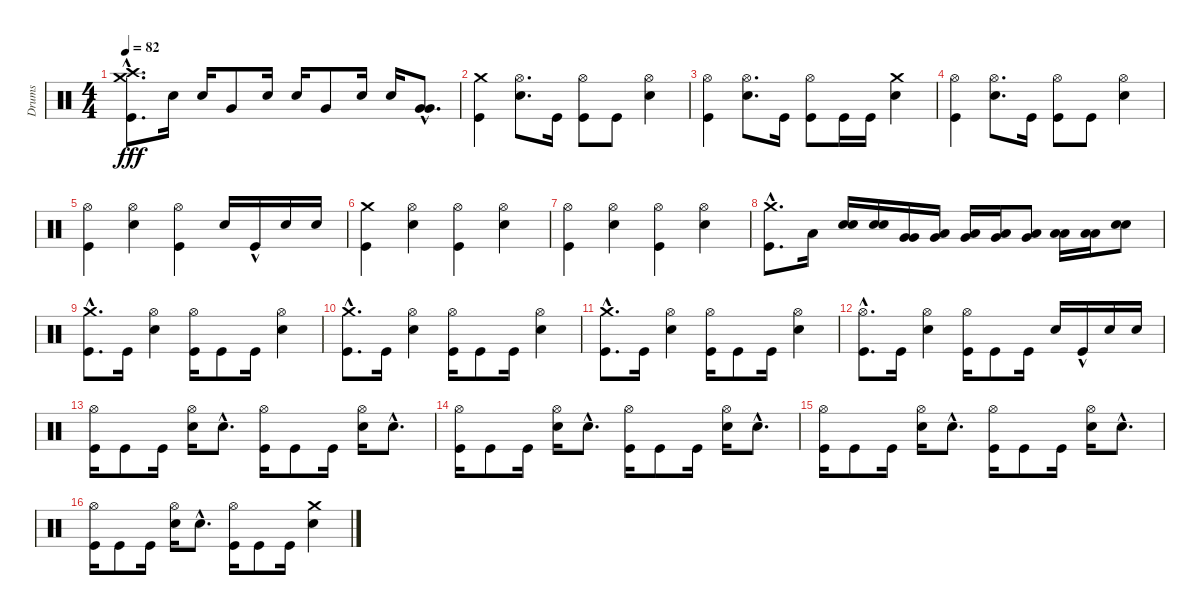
\track ("Drums" "Drums") {instrument percussion}
\staff {score}
\articulation defaults
\ts (4 4)
\tempo 82
\clef neutral
\ks c
("Kick (hit)" "Crash high (hit)"{hac} "Crash medium (hit)"{hac}).8{d dy fff} "Electric Snare (hit)".16 "Electric Snare (hit)".16 "Very Low Tom (hit)".8 "Electric Snare (hit)".16 "Electric Snare (hit)".16 "Very Low Tom (hit)".8 "Electric Snare (hit)".16 "Electric Snare (hit)".16 ("Very Low Tom (hit)"{hac} "Very Low Tom (hit)"{hac}).8{d} |
("Kick (hit)" "Crash medium (hit)").4 ("Electric Snare (hit)" "Hi-Hat (open)").8{d} "Kick (hit)".16 ("Kick (hit)" "Hi-Hat (open)").8 "Kick (hit)".8 ("Electric Snare (hit)" "Hi-Hat (open)").4 |
("Kick (hit)" "Hi-Hat (open)").4 ("Electric Snare (hit)" "Hi-Hat (open)").8{d} "Kick (hit)".16 ("Kick (hit)" "Hi-Hat (open)").8 "Kick (hit)".16 "Kick (hit)".16 ("Electric Snare (hit)" "Crash medium (hit)").4 |
("Kick (hit)" "Hi-Hat (open)").4 ("Electric Snare (hit)" "Hi-Hat (open)").8{d} "Kick (hit)".16 ("Kick (hit)" "Hi-Hat (open)").8 "Kick (hit)".8 ("Electric Snare (hit)" "Hi-Hat (open)").4 |
("Kick (hit)" "Hi-Hat (open)").4 ("Electric Snare (hit)" "Hi-Hat (open)").4 ("Kick (hit)" "Hi-Hat (open)").4 "Electric Snare (hit)".16 "Kick (hit)"{hac}.16 "Electric Snare (hit)".16 "Electric Snare (hit)".16 |
("Kick (hit)" "Crash medium (hit)").4 ("Electric Snare (hit)" "Hi-Hat (open)").4 ("Kick (hit)" "Hi-Hat (open)").4 ("Electric Snare (hit)" "Hi-Hat (open)").4 |
("Kick (hit)" "Hi-Hat (open)").4 ("Electric Snare (hit)" "Hi-Hat (open)").4 ("Kick (hit)" "Hi-Hat (open)").4 ("Electric Snare (hit)" "Hi-Hat (open)").4 |
("Kick (hit)" "Crash medium (hit)"{hac}).8{d} "Low Floor Tom (hit)".16 ("Electric Snare (hit)" "Electric Snare (hit)").16 ("Electric Snare (hit)" "Electric Snare (hit)").16 ("Very Low Tom (hit)" "Very Low Tom (hit)").16 ("Very Low Tom (hit)" "Low Floor Tom (hit)").16 ("Very Low Tom (hit)" "Low Tom (hit)").16 ("Very Low Tom (hit)" "Low Tom (hit)").16 ("Very Low Tom (hit)" "Low Floor Tom (hit)").8 ("Low Floor Tom (hit)" "Low Floor Tom (hit)").16 ("Low Floor Tom (hit)" "Low Floor Tom (hit)").16 ("Snare (hit) 2" "Electric Snare (hit)").8 |
("Kick (hit)"{hac} "Crash medium (hit)").8{d} "Kick (hit)".16 ("Electric Snare (hit)" "Hi-Hat (open)").4 ("Kick (hit)" "Hi-Hat (open)").16 "Kick (hit)".8 "Kick (hit)".16 ("Electric Snare (hit)" "Hi-Hat (open)").4 |
("Kick (hit)"{hac} "Crash medium (hit)").8{d} "Kick (hit)".16 ("Electric Snare (hit)" "Hi-Hat (open)").4 ("Kick (hit)" "Hi-Hat (open)").16 "Kick (hit)".8 "Kick (hit)".16 ("Electric Snare (hit)" "Hi-Hat (open)").4 |
("Kick (hit)"{hac} "Crash medium (hit)").8{d} "Kick (hit)".16 ("Electric Snare (hit)" "Hi-Hat (open)").4 ("Kick (hit)" "Hi-Hat (open)").16 "Kick (hit)".8 "Kick (hit)".16 ("Electric Snare (hit)" "Hi-Hat (open)").4 |
("Kick (hit)"{hac} "Hi-Hat (open)").8{d} "Kick (hit)".16 ("Electric Snare (hit)" "Hi-Hat (open)").4 ("Kick (hit)" "Hi-Hat (open)").16 "Kick (hit)".8 "Kick (hit)".16 "Electric Snare (hit)".16 "Kick (hit)"{hac}.16 "Electric Snare (hit)".16 "Electric Snare (hit)".16 |
("Kick (hit)" "Hi-Hat (open)").16 "Kick (hit)".8 "Kick (hit)".16 ("Hi-Hat (open)" "Electric Snare (hit)").16 "Electric Snare (hit)"{hac}.8{d} ("Kick (hit)" "Hi-Hat (open)").16 "Kick (hit)".8 "Kick (hit)".16 ("Electric Snare (hit)" "Hi-Hat (open)").16 "Electric Snare (hit)"{hac}.8{d} |
("Kick (hit)" "Hi-Hat (open)").16 "Kick (hit)".8 "Kick (hit)".16 ("Hi-Hat (open)" "Electric Snare (hit)").16 "Electric Snare (hit)"{hac}.8{d} ("Kick (hit)" "Hi-Hat (open)").16 "Kick (hit)".8 "Kick (hit)".16 ("Electric Snare (hit)" "Hi-Hat (open)").16 "Electric Snare (hit)"{hac}.8{d} |
("Kick (hit)" "Hi-Hat (open)").16 "Kick (hit)".8 "Kick (hit)".16 ("Hi-Hat (open)" "Electric Snare (hit)").16 "Electric Snare (hit)"{hac}.8{d} ("Kick (hit)" "Hi-Hat (open)").16 "Kick (hit)".8 "Kick (hit)".16 ("Electric Snare (hit)" "Hi-Hat (open)").16 "Electric Snare (hit)"{hac}.8{d} |
("Kick (hit)" "Hi-Hat (open)").16 "Kick (hit)".8 "Kick (hit)".16 ("Hi-Hat (open)" "Electric Snare (hit)").16 "Electric Snare (hit)"{hac}.8{d} ("Kick (hit)" "Hi-Hat (open)").16 "Kick (hit)".8 "Kick (hit)".16 ("Electric Snare (hit)" "Crash medium (hit)").4
